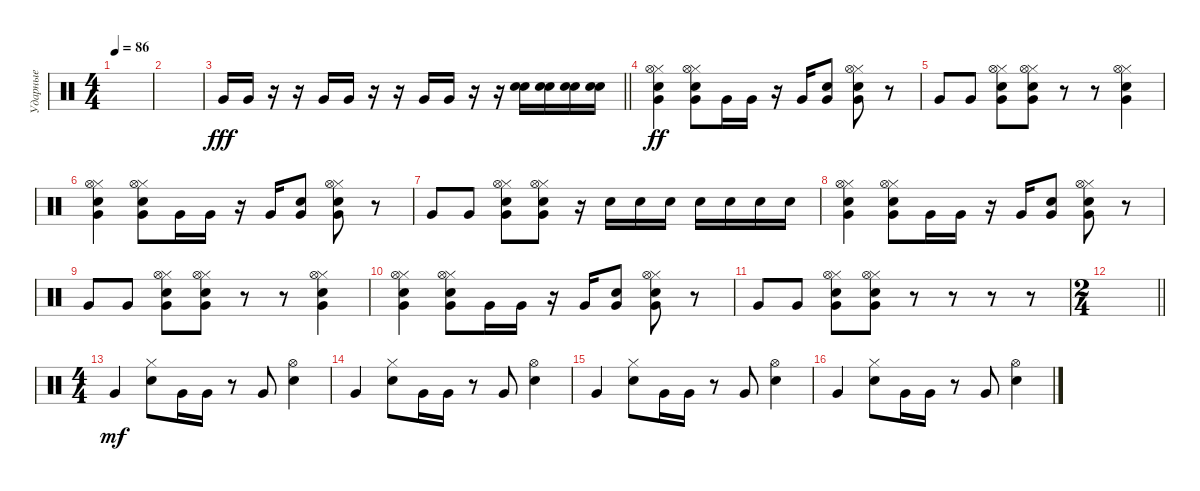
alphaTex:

\track ("Ударные" "Ударные") {instrument percussion}
\staff {score}
\articulation defaults
\ts (4 4)
\tempo 86
\clef neutral
\ks c
|
|
\barLineRight lightlight "Very Low Tom (hit)".16{dy fff} "Very Low Tom (hit)".16
r.16 r.16 "Very Low Tom (hit)".16 "Very Low Tom (hit)".16 r.16 r.16 "Very Low Tom (hit)".16 "Very Low Tom (hit)".16 r.16 r.16 ("Electric Snare (hit)" "Electric Snare (hit)").16 ("Electric Snare (hit)" "Electric Snare (hit)").16 ("Electric Snare (hit)" "Electric Snare (hit)").16 ("Electric Snare (hit)" "Electric Snare (hit)").16 |
("Very Low Tom (hit)" "Electric Snare (hit)" "Hi-Hat (closed)" "Hi-Hat (open)").4{dy ff} ("Very Low Tom (hit)" "Electric Snare (hit)" "Hi-Hat (closed)" "Hi-Hat (open)").8 "Very Low Tom (hit)".16 "Very Low Tom (hit)".16 r.16 "Very Low Tom (hit)".16 ("Electric Snare (hit)" "Very Low Tom (hit)").8 ("Very Low Tom (hit)" "Electric Snare (hit)" "Hi-Hat (closed)" "Hi-Hat (open)").8 r.8 |
"Very Low Tom (hit)".8 "Very Low Tom (hit)".8 ("Very Low Tom (hit)" "Electric Snare (hit)" "Hi-Hat (closed)" "Hi-Hat (open)").8 ("Very Low Tom (hit)" "Electric Snare (hit)" "Hi-Hat (closed)" "Hi-Hat (open)").8 r.8 r.8 ("Hi-Hat (closed)" "Electric Snare (hit)" "Very Low Tom (hit)" "Hi-Hat (open)").4 |
("Very Low Tom (hit)" "Electric Snare (hit)" "Hi-Hat (closed)" "Hi-Hat (open)").4 ("Very Low Tom (hit)" "Electric Snare (hit)" "Hi-Hat (closed)" "Hi-Hat (open)").8 "Very Low Tom (hit)".16 "Very Low Tom (hit)".16 r.16 "Very Low Tom (hit)".16 ("Electric Snare (hit)" "Very Low Tom (hit)").8 ("Very Low Tom (hit)" "Electric Snare (hit)" "Hi-Hat (closed)" "Hi-Hat (open)").8 r.8 |
"Very Low Tom (hit)".8 "Very Low Tom (hit)".8 ("Very Low Tom (hit)" "Electric Snare (hit)" "Hi-Hat (closed)" "Hi-Hat (open)").8 ("Very Low Tom (hit)" "Electric Snare (hit)" "Hi-Hat (closed)" "Hi-Hat (open)").8 r.16 "Electric Snare (hit)".16 "Electric Snare (hit)".16 "Electric Snare (hit)".16 "Electric Snare (hit)".16 "Electric Snare (hit)".16 "Electric Snare (hit)".16 "Electric Snare (hit)".16 |
("Very Low Tom (hit)" "Electric Snare (hit)" "Hi-Hat (closed)" "Hi-Hat (open)").4 ("Very Low Tom (hit)" "Electric Snare (hit)" "Hi-Hat (closed)" "Hi-Hat (open)").8 "Very Low Tom (hit)".16 "Very Low Tom (hit)".16 r.16 "Very Low Tom (hit)".16 ("Electric Snare (hit)" "Very Low Tom (hit)").8 ("Very Low Tom (hit)" "Electric Snare (hit)" "Hi-Hat (closed)" "Hi-Hat (open)").8 r.8 |
"Very Low Tom (hit)".8 "Very Low Tom (hit)".8 ("Very Low Tom (hit)" "Electric Snare (hit)" "Hi-Hat (closed)" "Hi-Hat (open)").8 ("Very Low Tom (hit)" "Electric Snare (hit)" "Hi-Hat (closed)" "Hi-Hat (open)").8 r.8 r.8 ("Hi-Hat (closed)" "Electric Snare (hit)" "Very Low Tom (hit)" "Hi-Hat (open)").4 |
("Very Low Tom (hit)" "Electric Snare (hit)" "Hi-Hat (closed)" "Hi-Hat (open)").4 ("Very Low Tom (hit)" "Electric Snare (hit)" "Hi-Hat (closed)" "Hi-Hat (open)").8 "Very Low Tom (hit)".16 "Very Low Tom (hit)".16 r.16 "Very Low Tom (hit)".16 ("Electric Snare (hit)" "Very Low Tom (hit)").8 ("Very Low Tom (hit)" "Electric Snare (hit)" "Hi-Hat (closed)" "Hi-Hat (open)").8 r.8 |
"Very Low Tom (hit)".8 "Very Low Tom (hit)".8 ("Very Low Tom (hit)" "Electric Snare (hit)" "Hi-Hat (closed)" "Hi-Hat (open)").8 ("Very Low Tom (hit)" "Electric Snare (hit)" "Hi-Hat (closed)" "Hi-Hat (open)").8 r.8 r.8 r.8 r.8 |
\ts (2 4)
\barLineRight lightlight
|
\ts (4 4)
"Very Low Tom (hit)".4{dy mf} ("Hi-Hat (closed)" "Electric Snare (hit)").8 "Very Low Tom (hit)".16 "Very Low Tom (hit)".16 r.8 "Very Low Tom (hit)".8 ("Hi-Hat (open)" "Electric Snare (hit)").4 |
"Very Low Tom (hit)".4 ("Hi-Hat (closed)" "Electric Snare (hit)").8 "Very Low Tom (hit)".16 "Very Low Tom (hit)".16 r.8 "Very Low Tom (hit)".8 ("Hi-Hat (open)" "Electric Snare (hit)").4 |
"Very Low Tom (hit)".4 ("Hi-Hat (closed)" "Electric Snare (hit)").8 "Very Low Tom (hit)".16 "Very Low Tom (hit)".16 r.8 "Very Low Tom (hit)".8 ("Hi-Hat (open)" "Electric Snare (hit)").4 |
"Very Low Tom (hit)".4 ("Hi-Hat (closed)" "Electric Snare (hit)").8 "Very Low Tom (hit)".16 "Very Low Tom (hit)".16 r.8 "Very Low Tom (hit)".8 ("Hi-Hat (open)" "Electric Snare (hit)").4
